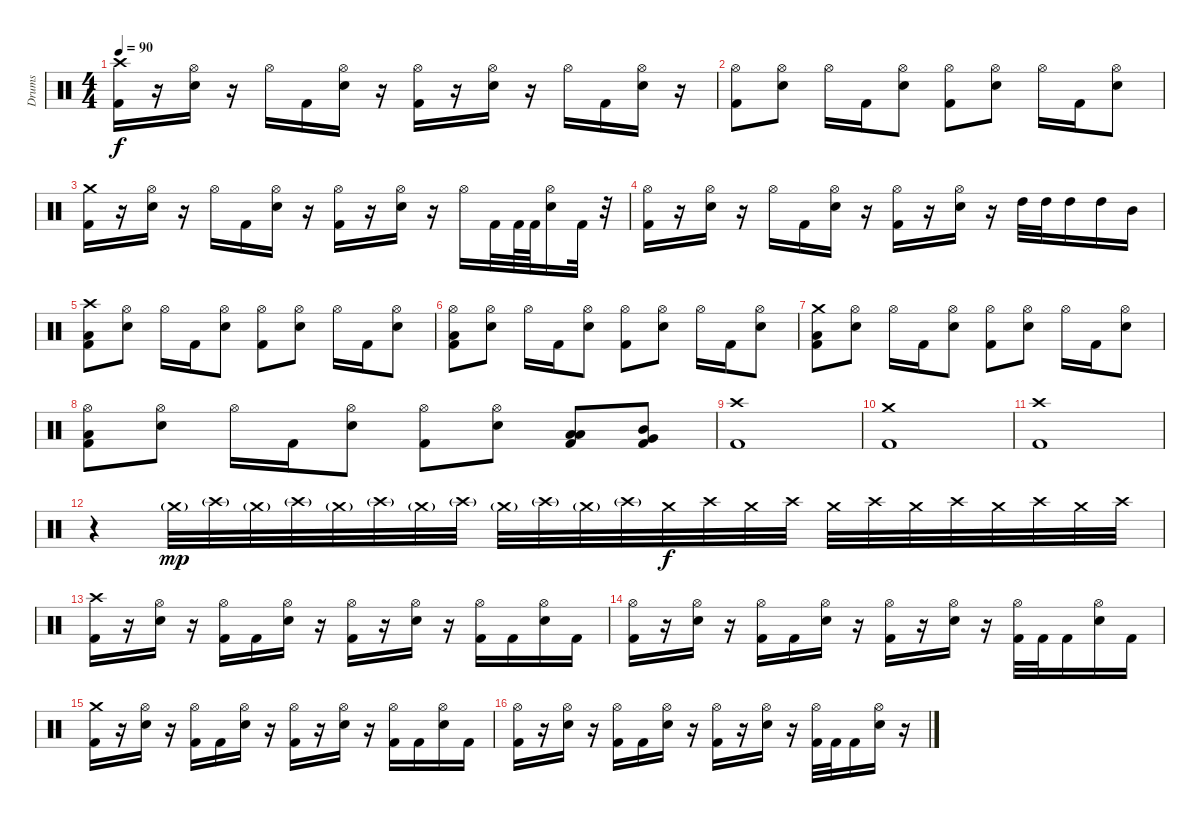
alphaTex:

\track ("Drums" "Drums") {instrument percussion}
\staff {score}
\articulation defaults
\ts (4 4)
\tempo 90
\clef neutral
\ks c
("Crash high (hit)" "Kick (hit) 2").16{dy f} r.16 ("Hi-Hat (open)" "Snare (hit) 2").16 r.16 "Hi-Hat (open)".16 "Kick (hit) 2".16 ("Hi-Hat (open)" "Snare (hit) 2").16 r.16 ("Hi-Hat (open)" "Kick (hit) 2").16 r.16 ("Hi-Hat (open)" "Snare (hit) 2").16 r.16 "Hi-Hat (open)".16 "Kick (hit) 2".16 ("Hi-Hat (open)" "Snare (hit) 2").16 r.16 |
("Hi-Hat (open)" "Kick (hit) 2").8 ("Hi-Hat (open)" "Snare (hit) 2").8 "Hi-Hat (open)".16 "Kick (hit) 2".16 ("Hi-Hat (open)" "Snare (hit) 2").8 ("Hi-Hat (open)" "Kick (hit) 2").8 ("Hi-Hat (open)" "Snare (hit) 2").8 "Hi-Hat (open)".16 "Kick (hit) 2".16 ("Hi-Hat (open)" "Snare (hit) 2").8 |
("Crash medium (hit)" "Kick (hit) 2").16 r.16 ("Hi-Hat (open)" "Snare (hit) 2").16 r.16 "Hi-Hat (open)".16 "Kick (hit) 2".16 ("Hi-Hat (open)" "Snare (hit) 2").16 r.16 ("Hi-Hat (open)" "Kick (hit) 2").16 r.16 ("Hi-Hat (open)" "Snare (hit) 2").16 r.16 "Hi-Hat (open)".16 "Kick (hit) 2".32 "Kick (hit) 2".64 "Kick (hit) 2".64 ("Hi-Hat (open)" "Snare (hit) 2").16 "Kick (hit) 2".32 r.32 |
("Hi-Hat (open)" "Kick (hit) 2").16 r.16 ("Hi-Hat (open)" "Snare (hit) 2").16 r.16 "Hi-Hat (open)".16 "Kick (hit) 2".16 ("Hi-Hat (open)" "Snare (hit) 2").16 r.16 ("Hi-Hat (open)" "Kick (hit) 2").16 r.16 ("Hi-Hat (open)" "Snare (hit) 2").16 r.16 "High Tom (hit)".32 "High Tom (hit)".32 "High Tom (hit)".16 "High Tom (hit)".16 "Mid Tom (hit)".16 |
("Crash high (hit)" "Low Floor Tom (hit)" "Kick (hit) 2").8 ("Hi-Hat (open)" "Snare (hit) 2").8 "Hi-Hat (open)".16 "Kick (hit) 2".16 ("Hi-Hat (open)" "Snare (hit) 2").8 ("Hi-Hat (open)" "Kick (hit) 2").8 ("Hi-Hat (open)" "Snare (hit) 2").8 "Hi-Hat (open)".16 "Kick (hit) 2".16 ("Hi-Hat (open)" "Snare (hit) 2").8 |
("Hi-Hat (open)" "Low Floor Tom (hit)" "Kick (hit) 2").8 ("Hi-Hat (open)" "Snare (hit) 2").8 "Hi-Hat (open)".16 "Kick (hit) 2".16 ("Hi-Hat (open)" "Snare (hit) 2").8 ("Hi-Hat (open)" "Kick (hit) 2").8 ("Hi-Hat (open)" "Snare (hit) 2").8 "Hi-Hat (open)".16 "Kick (hit) 2".16 ("Hi-Hat (open)" "Snare (hit) 2").8 |
("Crash medium (hit)" "Low Floor Tom (hit)" "Kick (hit) 2").8 ("Hi-Hat (open)" "Snare (hit) 2").8 "Hi-Hat (open)".16 "Kick (hit) 2".16 ("Hi-Hat (open)" "Snare (hit) 2").8 ("Hi-Hat (open)" "Kick (hit) 2").8 ("Hi-Hat (open)" "Snare (hit) 2").8 "Hi-Hat (open)".16 "Kick (hit) 2".16 ("Hi-Hat (open)" "Snare (hit) 2").8 |
("Hi-Hat (open)" "Low Floor Tom (hit)" "Kick (hit) 2").8 ("Hi-Hat (open)" "Snare (hit) 2").8 "Hi-Hat (open)".16 "Kick (hit) 2".16 ("Hi-Hat (open)" "Snare (hit) 2").8 ("Hi-Hat (open)" "Kick (hit) 2").8 ("Hi-Hat (open)" "Snare (hit) 2").8 ("Low Tom (hit)" "Low Floor Tom (hit)" "Kick (hit) 2").8 ("Mid Tom (hit)" "Very Low Tom (hit)" "Kick (hit) 2").8 |
("Crash high (hit)" "Kick (hit) 2").1 |
("Crash medium (hit)" "Kick (hit) 2").1 |
("Crash high (hit)" "Kick (hit) 2").1 |
r.4 "Crash medium (hit)"{g}.32{dy mp} "Crash high (hit)"{g}.32 "Crash medium (hit)"{g}.32 "Crash high (hit)"{g}.32 "Crash medium (hit)"{g}.32 "Crash high (hit)"{g}.32 "Crash medium (hit)"{g}.32 "Crash high (hit)"{g}.32 "Crash medium (hit)"{g}.32 "Crash high (hit)"{g}.32 "Crash medium (hit)"{g}.32 "Crash high (hit)"{g}.32 "Crash medium (hit)".32{dy f} "Crash high (hit)".32 "Crash medium (hit)".32 "Crash high (hit)".32 "Crash medium (hit)".32 "Crash high (hit)".32 "Crash medium (hit)".32 "Crash high (hit)".32 "Crash medium (hit)".32 "Crash high (hit)".32 "Crash medium (hit)".32 "Crash high (hit)".32 |
("Crash high (hit)" "Kick (hit) 2").16 r.16 ("Hi-Hat (open)" "Snare (hit) 2").16 r.16 ("Hi-Hat (open)" "Kick (hit) 2").16 "Kick (hit) 2".16 ("Hi-Hat (open)" "Snare (hit) 2").16 r.16 ("Hi-Hat (open)" "Kick (hit) 2").16 r.16 ("Hi-Hat (open)" "Snare (hit) 2").16 r.16 ("Hi-Hat (open)" "Kick (hit) 2").16 "Kick (hit) 2".16 ("Hi-Hat (open)" "Snare (hit) 2").16 "Kick (hit) 2".16 |
("Hi-Hat (open)" "Kick (hit) 2").16 r.16 ("Hi-Hat (open)" "Snare (hit) 2").16 r.16 ("Hi-Hat (open)" "Kick (hit) 2").16 "Kick (hit) 2".16 ("Hi-Hat (open)" "Snare (hit) 2").16 r.16 ("Hi-Hat (open)" "Kick (hit) 2").16 r.16 ("Hi-Hat (open)" "Snare (hit) 2").16 r.16 ("Hi-Hat (open)" "Kick (hit) 2").32 "Kick (hit) 2".32 "Kick (hit) 2".16 ("Hi-Hat (open)" "Snare (hit) 2").16 "Kick (hit) 2".16 |
("Crash medium (hit)" "Kick (hit) 2").16 r.16 ("Hi-Hat (open)" "Snare (hit) 2").16 r.16 ("Hi-Hat (open)" "Kick (hit) 2").16 "Kick (hit) 2".16 ("Hi-Hat (open)" "Snare (hit) 2").16 r.16 ("Hi-Hat (open)" "Kick (hit) 2").16 r.16 ("Hi-Hat (open)" "Snare (hit) 2").16 r.16 ("Hi-Hat (open)" "Kick (hit) 2").16 "Kick (hit) 2".16 ("Hi-Hat (open)" "Snare (hit) 2").16 "Kick (hit) 2".16 |
("Hi-Hat (open)" "Kick (hit) 2").16 r.16 ("Hi-Hat (open)" "Snare (hit) 2").16 r.16 ("Hi-Hat (open)" "Kick (hit) 2").16 "Kick (hit) 2".16 ("Hi-Hat (open)" "Snare (hit) 2").16 r.16 ("Hi-Hat (open)" "Kick (hit) 2").16 r.16 ("Hi-Hat (open)" "Snare (hit) 2").16 r.16 ("Hi-Hat (open)" "Kick (hit) 2").32 "Kick (hit) 2".32 "Kick (hit) 2".16 ("Hi-Hat (open)" "Snare (hit) 2").16 r.16
